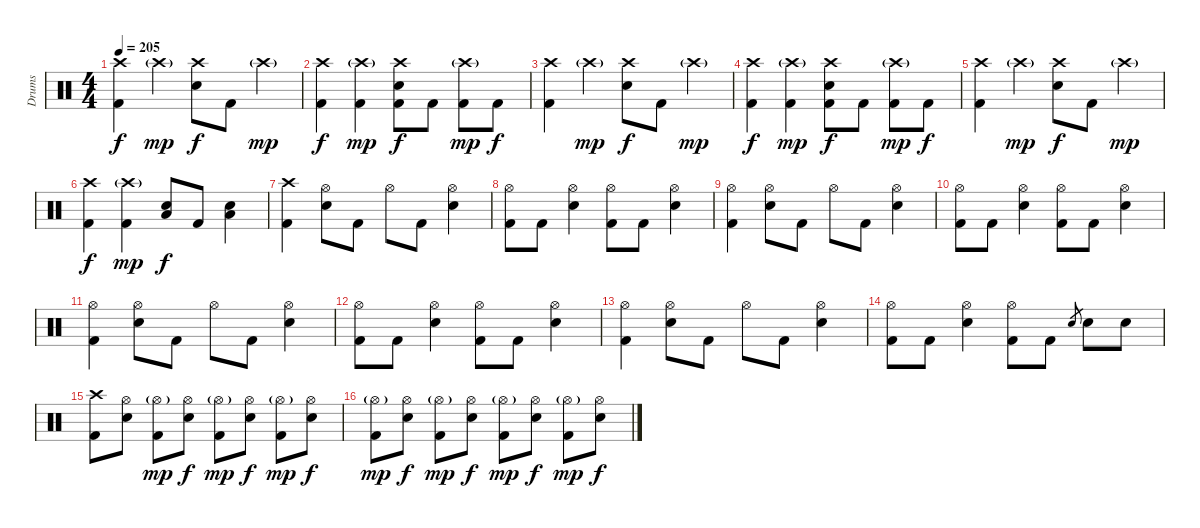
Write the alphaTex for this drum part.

\track ("Drums" "Drums") {instrument percussion}
\staff {score}
\articulation defaults
\ts (4 4)
\tempo 205
\clef neutral
\ks c
("Crash high (hit)" "Kick (hit) 2").4{dy f} "Crash high (hit)"{g}.4{dy mp} ("Crash high (hit)" "Electric Snare (hit)").8{dy f} "Kick (hit) 2".8 "Crash high (hit)"{g}.4{dy mp} |
("Crash high (hit)" "Kick (hit) 2").4{dy f} ("Crash high (hit)"{g} "Kick (hit) 2").4{dy mp} ("Crash high (hit)" "Electric Snare (hit)" "Kick (hit) 2").8{dy f} "Kick (hit) 2".8 ("Crash high (hit)"{g} "Kick (hit) 2").8{dy mp} "Kick (hit) 2".8{dy f} |
("Crash high (hit)" "Kick (hit) 2").4 "Crash high (hit)"{g}.4{dy mp} ("Crash high (hit)" "Electric Snare (hit)").8{dy f} "Kick (hit) 2".8 "Crash high (hit)"{g}.4{dy mp} |
("Crash high (hit)" "Kick (hit) 2").4{dy f} ("Crash high (hit)"{g} "Kick (hit) 2").4{dy mp} ("Crash high (hit)" "Electric Snare (hit)" "Kick (hit) 2").8{dy f} "Kick (hit) 2".8 ("Crash high (hit)"{g} "Kick (hit) 2").8{dy mp} "Kick (hit) 2".8{dy f} |
("Crash high (hit)" "Kick (hit) 2").4 "Crash high (hit)"{g}.4{dy mp} ("Crash high (hit)" "Electric Snare (hit)").8{dy f} "Kick (hit) 2".8 "Crash high (hit)"{g}.4{dy mp} |
("Crash high (hit)" "Kick (hit) 2").4{dy f} ("Crash high (hit)"{g} "Kick (hit) 2").4{dy mp} ("Electric Snare (hit)" "Low Tom (hit)").8{dy f} "Kick (hit) 2".8 ("Electric Snare (hit)" "Low Tom (hit)").4 |
("Crash high (hit)" "Kick (hit) 2").4 ("Hi-Hat (open)" "Electric Snare (hit)").8 "Kick (hit) 2".8 "Hi-Hat (open)".8 "Kick (hit) 2".8 ("Hi-Hat (open)" "Electric Snare (hit)").4 |
("Hi-Hat (open)" "Kick (hit) 2").8 "Kick (hit) 2".8 ("Hi-Hat (open)" "Electric Snare (hit)").4 ("Hi-Hat (open)" "Kick (hit) 2").8 "Kick (hit) 2".8 ("Hi-Hat (open)" "Electric Snare (hit)").4 |
("Hi-Hat (open)" "Kick (hit) 2").4 ("Hi-Hat (open)" "Electric Snare (hit)").8 "Kick (hit) 2".8 "Hi-Hat (open)".8 "Kick (hit) 2".8 ("Hi-Hat (open)" "Electric Snare (hit)").4 |
("Hi-Hat (open)" "Kick (hit) 2").8 "Kick (hit) 2".8 ("Hi-Hat (open)" "Electric Snare (hit)").4 ("Hi-Hat (open)" "Kick (hit) 2").8 "Kick (hit) 2".8 ("Hi-Hat (open)" "Electric Snare (hit)").4 |
("Hi-Hat (open)" "Kick (hit) 2").4 ("Hi-Hat (open)" "Electric Snare (hit)").8 "Kick (hit) 2".8 "Hi-Hat (open)".8 "Kick (hit) 2".8 ("Hi-Hat (open)" "Electric Snare (hit)").4 |
("Hi-Hat (open)" "Kick (hit) 2").8 "Kick (hit) 2".8 ("Hi-Hat (open)" "Electric Snare (hit)").4 ("Hi-Hat (open)" "Kick (hit) 2").8 "Kick (hit) 2".8 ("Hi-Hat (open)" "Electric Snare (hit)").4 |
("Hi-Hat (open)" "Kick (hit) 2").4 ("Hi-Hat (open)" "Electric Snare (hit)").8 "Kick (hit) 2".8 "Hi-Hat (open)".8 "Kick (hit) 2".8 ("Hi-Hat (open)" "Electric Snare (hit)").4 |
("Hi-Hat (open)" "Kick (hit) 2").8 "Kick (hit) 2".8 ("Hi-Hat (open)" "Electric Snare (hit)").4 ("Hi-Hat (open)" "Kick (hit) 2").8 "Kick (hit) 2".8 "Electric Snare (hit)".8{gr} "Electric Snare (hit)".8 "Electric Snare (hit)".8 |
("Crash high (hit)" "Kick (hit) 2").8 ("Hi-Hat (open)" "Electric Snare (hit)").8 ("Hi-Hat (open)"{g} "Kick (hit) 2").8{dy mp} ("Hi-Hat (open)" "Electric Snare (hit)").8{dy f} ("Hi-Hat (open)"{g} "Kick (hit) 2").8{dy mp} ("Hi-Hat (open)" "Electric Snare (hit)").8{dy f} ("Hi-Hat (open)"{g} "Kick (hit) 2").8{dy mp} ("Hi-Hat (open)" "Electric Snare (hit)").8{dy f} |
("Hi-Hat (open)"{g} "Kick (hit) 2").8{dy mp} ("Hi-Hat (open)" "Electric Snare (hit)").8{dy f} ("Hi-Hat (open)"{g} "Kick (hit) 2").8{dy mp} ("Hi-Hat (open)" "Electric Snare (hit)").8{dy f} ("Hi-Hat (open)"{g} "Kick (hit) 2").8{dy mp} ("Hi-Hat (open)" "Electric Snare (hit)").8{dy f} ("Hi-Hat (open)"{g} "Kick (hit) 2").8{dy mp} ("Hi-Hat (open)" "Electric Snare (hit)").8{dy f}
